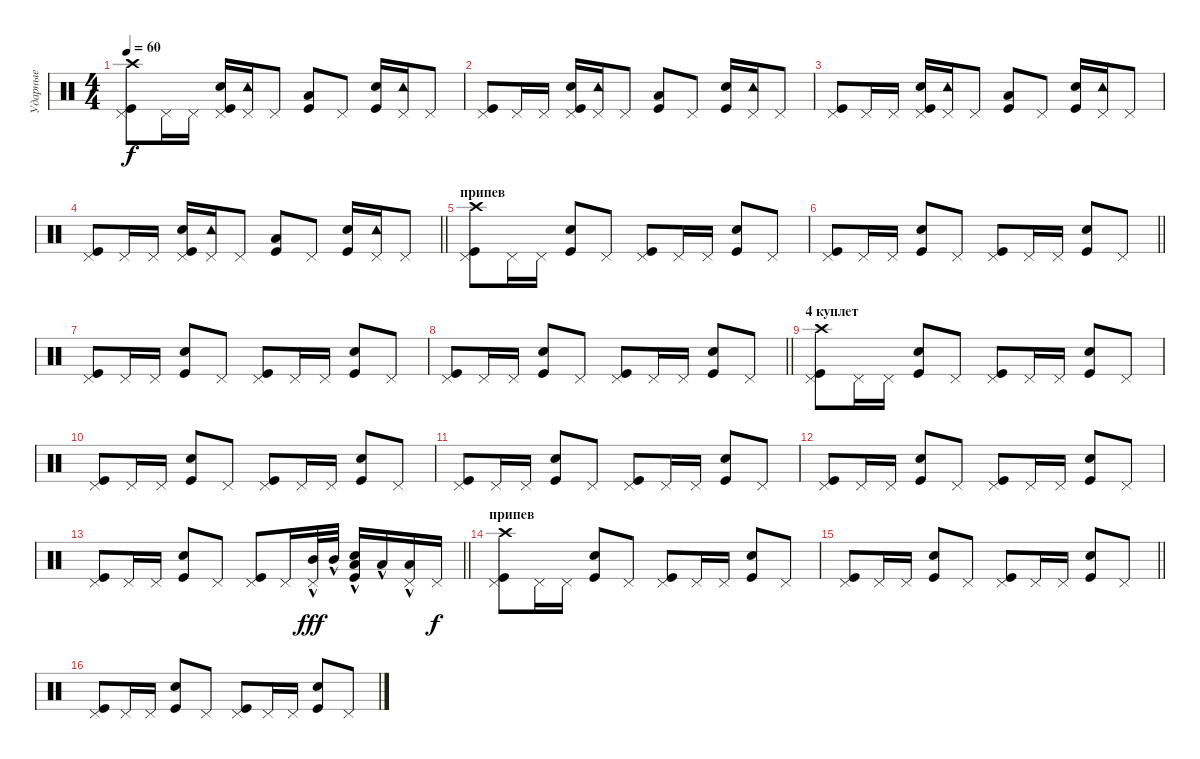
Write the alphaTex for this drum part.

\track ("Ударные" "Ударные") {instrument percussion}
\staff {score}
\articulation defaults
\ts (4 4)
\tempo 60
\clef neutral
\ks c
("Pedal Hi-Hat (hit)" "Kick (hit)" "Crash high (hit)").8{dy f} "Pedal Hi-Hat (hit)".16 "Pedal Hi-Hat (hit)".16 ("Pedal Hi-Hat (hit)" "Kick (hit)" "Snare (hit) 2").16 ("Pedal Hi-Hat (hit)" "Tambourine (hit)").16 "Pedal Hi-Hat (hit)".8 ("Kick (hit)" "Low Tom (hit)").8 "Pedal Hi-Hat (hit)".8 ("Kick (hit)" "Snare (hit) 2").16 ("Pedal Hi-Hat (hit)" "Tambourine (hit)").16 "Pedal Hi-Hat (hit)".8 |
("Pedal Hi-Hat (hit)" "Kick (hit)").8 "Pedal Hi-Hat (hit)".16 "Pedal Hi-Hat (hit)".16 ("Pedal Hi-Hat (hit)" "Kick (hit)" "Snare (hit) 2").16 ("Pedal Hi-Hat (hit)" "Tambourine (hit)").16 "Pedal Hi-Hat (hit)".8 ("Kick (hit)" "Low Tom (hit)").8 "Pedal Hi-Hat (hit)".8 ("Kick (hit)" "Snare (hit) 2").16 ("Pedal Hi-Hat (hit)" "Tambourine (hit)").16 "Pedal Hi-Hat (hit)".8 |
("Pedal Hi-Hat (hit)" "Kick (hit)").8 "Pedal Hi-Hat (hit)".16 "Pedal Hi-Hat (hit)".16 ("Pedal Hi-Hat (hit)" "Kick (hit)" "Snare (hit) 2").16 ("Pedal Hi-Hat (hit)" "Tambourine (hit)").16 "Pedal Hi-Hat (hit)".8 ("Kick (hit)" "Low Tom (hit)").8 "Pedal Hi-Hat (hit)".8 ("Kick (hit)" "Snare (hit) 2").16 ("Pedal Hi-Hat (hit)" "Tambourine (hit)").16 "Pedal Hi-Hat (hit)".8 |
\barLineRight lightlight
("Pedal Hi-Hat (hit)" "Kick (hit)").8 "Pedal Hi-Hat (hit)".16 "Pedal Hi-Hat (hit)".16 ("Pedal Hi-Hat (hit)" "Kick (hit)" "Snare (hit) 2").16 ("Pedal Hi-Hat (hit)" "Tambourine (hit)").16 "Pedal Hi-Hat (hit)".8 ("Kick (hit)" "Low Tom (hit)").8 "Pedal Hi-Hat (hit)".8 ("Kick (hit)" "Snare (hit) 2").16 ("Pedal Hi-Hat (hit)" "Tambourine (hit)").16 "Pedal Hi-Hat (hit)".8 |
\section ("" "припев")
("Pedal Hi-Hat (hit)" "Kick (hit)" "Crash high (hit)").8 "Pedal Hi-Hat (hit)".16 "Pedal Hi-Hat (hit)".16 ("Kick (hit)" "Snare (hit) 2").8 "Pedal Hi-Hat (hit)".8 ("Pedal Hi-Hat (hit)" "Kick (hit)").8 "Pedal Hi-Hat (hit)".16 "Pedal Hi-Hat (hit)".16 ("Kick (hit)" "Snare (hit) 2").8 "Pedal Hi-Hat (hit)".8 |
\barLineRight lightlight
("Pedal Hi-Hat (hit)" "Kick (hit)").8 "Pedal Hi-Hat (hit)".16 "Pedal Hi-Hat (hit)".16 ("Kick (hit)" "Snare (hit) 2").8 "Pedal Hi-Hat (hit)".8 ("Pedal Hi-Hat (hit)" "Kick (hit)").8 "Pedal Hi-Hat (hit)".16 "Pedal Hi-Hat (hit)".16 ("Kick (hit)" "Snare (hit) 2").8 "Pedal Hi-Hat (hit)".8 |
("Pedal Hi-Hat (hit)" "Kick (hit)").8 "Pedal Hi-Hat (hit)".16 "Pedal Hi-Hat (hit)".16 ("Kick (hit)" "Snare (hit) 2").8 "Pedal Hi-Hat (hit)".8 ("Pedal Hi-Hat (hit)" "Kick (hit)").8 "Pedal Hi-Hat (hit)".16 "Pedal Hi-Hat (hit)".16 ("Kick (hit)" "Snare (hit) 2").8 "Pedal Hi-Hat (hit)".8 |
\barLineRight lightlight
("Pedal Hi-Hat (hit)" "Kick (hit)").8 "Pedal Hi-Hat (hit)".16 "Pedal Hi-Hat (hit)".16 ("Kick (hit)" "Snare (hit) 2").8 "Pedal Hi-Hat (hit)".8 ("Pedal Hi-Hat (hit)" "Kick (hit)").8 "Pedal Hi-Hat (hit)".16 "Pedal Hi-Hat (hit)".16 ("Kick (hit)" "Snare (hit) 2").8 "Pedal Hi-Hat (hit)".8 |
\section ("" "4 куплет")
("Pedal Hi-Hat (hit)" "Kick (hit)" "Crash high (hit)").8 "Pedal Hi-Hat (hit)".16 "Pedal Hi-Hat (hit)".16 ("Kick (hit)" "Snare (hit) 2").8 "Pedal Hi-Hat (hit)".8 ("Pedal Hi-Hat (hit)" "Kick (hit)").8 "Pedal Hi-Hat (hit)".16 "Pedal Hi-Hat (hit)".16 ("Kick (hit)" "Snare (hit) 2").8 "Pedal Hi-Hat (hit)".8 |
("Pedal Hi-Hat (hit)" "Kick (hit)").8 "Pedal Hi-Hat (hit)".16 "Pedal Hi-Hat (hit)".16 ("Kick (hit)" "Snare (hit) 2").8 "Pedal Hi-Hat (hit)".8 ("Pedal Hi-Hat (hit)" "Kick (hit)").8 "Pedal Hi-Hat (hit)".16 "Pedal Hi-Hat (hit)".16 ("Kick (hit)" "Snare (hit) 2").8 "Pedal Hi-Hat (hit)".8 |
("Pedal Hi-Hat (hit)" "Kick (hit)").8 "Pedal Hi-Hat (hit)".16 "Pedal Hi-Hat (hit)".16 ("Kick (hit)" "Snare (hit) 2").8 "Pedal Hi-Hat (hit)".8 ("Pedal Hi-Hat (hit)" "Kick (hit)").8 "Pedal Hi-Hat (hit)".16 "Pedal Hi-Hat (hit)".16 ("Kick (hit)" "Snare (hit) 2").8 "Pedal Hi-Hat (hit)".8 |
("Pedal Hi-Hat (hit)" "Kick (hit)").8 "Pedal Hi-Hat (hit)".16 "Pedal Hi-Hat (hit)".16 ("Kick (hit)" "Snare (hit) 2").8 "Pedal Hi-Hat (hit)".8 ("Pedal Hi-Hat (hit)" "Kick (hit)").8 "Pedal Hi-Hat (hit)".16 "Pedal Hi-Hat (hit)".16 ("Kick (hit)" "Snare (hit) 2").8 "Pedal Hi-Hat (hit)".8 |
\barLineRight lightlight
("Pedal Hi-Hat (hit)" "Kick (hit)").8 "Pedal Hi-Hat (hit)".16 "Pedal Hi-Hat (hit)".16 ("Kick (hit)" "Snare (hit) 2").8 "Pedal Hi-Hat (hit)".8 ("Pedal Hi-Hat (hit)" "Kick (hit)").8 "Pedal Hi-Hat (hit)".16 ("Pedal Hi-Hat (hit)" "Mid Tom (hit)"{hac}).32{dy fff} "Mid Tom (hit)"{hac}.32 ("Low Tom (hit)"{hac} "Snare (hit) 2" "Kick (hit)").16 "Low Tom (hit)"{hac}.16 ("Pedal Hi-Hat (hit)" "Low Tom (hit)"{hac}).16 "Pedal Hi-Hat (hit)".16{dy f} |
\section ("" "припев")
("Pedal Hi-Hat (hit)" "Kick (hit)" "Crash high (hit)").8 "Pedal Hi-Hat (hit)".16 "Pedal Hi-Hat (hit)".16 ("Kick (hit)" "Snare (hit) 2").8 "Pedal Hi-Hat (hit)".8 ("Pedal Hi-Hat (hit)" "Kick (hit)").8 "Pedal Hi-Hat (hit)".16 "Pedal Hi-Hat (hit)".16 ("Kick (hit)" "Snare (hit) 2").8 "Pedal Hi-Hat (hit)".8 |
\barLineRight lightlight
("Pedal Hi-Hat (hit)" "Kick (hit)").8 "Pedal Hi-Hat (hit)".16 "Pedal Hi-Hat (hit)".16 ("Kick (hit)" "Snare (hit) 2").8 "Pedal Hi-Hat (hit)".8 ("Pedal Hi-Hat (hit)" "Kick (hit)").8 "Pedal Hi-Hat (hit)".16 "Pedal Hi-Hat (hit)".16 ("Kick (hit)" "Snare (hit) 2").8 "Pedal Hi-Hat (hit)".8 |
("Pedal Hi-Hat (hit)" "Kick (hit)").8 "Pedal Hi-Hat (hit)".16 "Pedal Hi-Hat (hit)".16 ("Kick (hit)" "Snare (hit) 2").8 "Pedal Hi-Hat (hit)".8 ("Pedal Hi-Hat (hit)" "Kick (hit)").8 "Pedal Hi-Hat (hit)".16 "Pedal Hi-Hat (hit)".16 ("Kick (hit)" "Snare (hit) 2").8 "Pedal Hi-Hat (hit)".8
